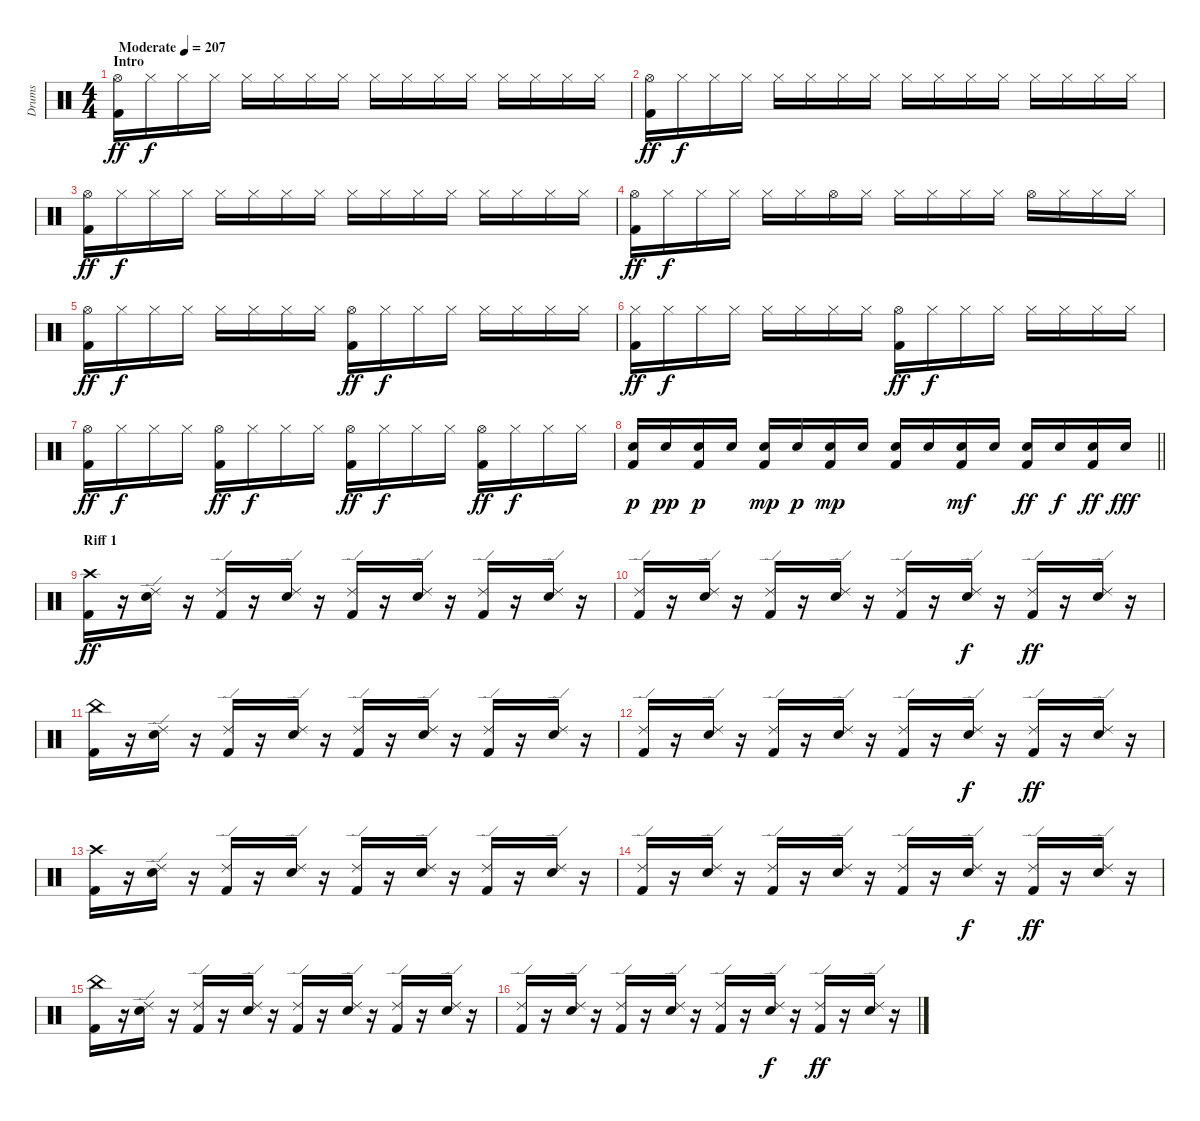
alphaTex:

\track ("Drums" "Drums") {instrument percussion}
\staff {score}
\articulation defaults
\ts (4 4)
\section ("" "Intro")
\tempo (207 "Moderate")
\clef neutral
\ks c
("Kick (hit) 2" "Hi-Hat (open)").16{dy ff} "Hi-Hat (closed)".16{dy f} "Hi-Hat (closed)".16 "Hi-Hat (closed)".16 "Hi-Hat (closed)".16 "Hi-Hat (closed)".16 "Hi-Hat (closed)".16 "Hi-Hat (closed)".16 "Hi-Hat (closed)".16 "Hi-Hat (closed)".16 "Hi-Hat (closed)".16 "Hi-Hat (closed)".16 "Hi-Hat (closed)".16 "Hi-Hat (closed)".16 "Hi-Hat (closed)".16 "Hi-Hat (closed)".16 |
("Kick (hit) 2" "Hi-Hat (open)").16{dy ff} "Hi-Hat (closed)".16{dy f} "Hi-Hat (closed)".16 "Hi-Hat (closed)".16 "Hi-Hat (closed)".16 "Hi-Hat (closed)".16 "Hi-Hat (closed)".16 "Hi-Hat (closed)".16 "Hi-Hat (closed)".16 "Hi-Hat (closed)".16 "Hi-Hat (closed)".16 "Hi-Hat (closed)".16 "Hi-Hat (closed)".16 "Hi-Hat (closed)".16 "Hi-Hat (closed)".16 "Hi-Hat (closed)".16 |
("Kick (hit) 2" "Hi-Hat (open)").16{dy ff} "Hi-Hat (closed)".16{dy f} "Hi-Hat (closed)".16 "Hi-Hat (closed)".16 "Hi-Hat (closed)".16 "Hi-Hat (closed)".16 "Hi-Hat (closed)".16 "Hi-Hat (closed)".16 "Hi-Hat (closed)".16 "Hi-Hat (closed)".16 "Hi-Hat (closed)".16 "Hi-Hat (closed)".16 "Hi-Hat (closed)".16 "Hi-Hat (closed)".16 "Hi-Hat (closed)".16 "Hi-Hat (closed)".16 |
("Kick (hit) 2" "Hi-Hat (open)").16{dy ff} "Hi-Hat (closed)".16{dy f} "Hi-Hat (closed)".16 "Hi-Hat (closed)".16 "Hi-Hat (closed)".16 "Hi-Hat (closed)".16 "Hi-Hat (open)".16 "Hi-Hat (closed)".16 "Hi-Hat (closed)".16 "Hi-Hat (closed)".16 "Hi-Hat (closed)".16 "Hi-Hat (closed)".16 "Hi-Hat (open)".16 "Hi-Hat (closed)".16 "Hi-Hat (closed)".16 "Hi-Hat (closed)".16 |
("Kick (hit) 2" "Hi-Hat (open)").16{dy ff} "Hi-Hat (closed)".16{dy f} "Hi-Hat (closed)".16 "Hi-Hat (closed)".16 "Hi-Hat (closed)".16 "Hi-Hat (closed)".16 "Hi-Hat (closed)".16 "Hi-Hat (closed)".16 ("Kick (hit) 2" "Hi-Hat (open)").16{dy ff} "Hi-Hat (closed)".16{dy f} "Hi-Hat (closed)".16 "Hi-Hat (closed)".16 "Hi-Hat (closed)".16 "Hi-Hat (closed)".16 "Hi-Hat (closed)".16 "Hi-Hat (closed)".16 |
("Kick (hit) 2" "Hi-Hat (closed)").16{dy ff} "Hi-Hat (closed)".16{dy f} "Hi-Hat (closed)".16 "Hi-Hat (closed)".16 "Hi-Hat (closed)".16 "Hi-Hat (closed)".16 "Hi-Hat (closed)".16 "Hi-Hat (closed)".16 ("Kick (hit) 2" "Hi-Hat (open)").16{dy ff} "Hi-Hat (closed)".16{dy f} "Hi-Hat (closed)".16 "Hi-Hat (closed)".16 "Hi-Hat (closed)".16 "Hi-Hat (closed)".16 "Hi-Hat (closed)".16 "Hi-Hat (closed)".16 |
("Kick (hit) 2" "Hi-Hat (open)").16{dy ff} "Hi-Hat (closed)".16{dy f} "Hi-Hat (closed)".16 "Hi-Hat (closed)".16 ("Kick (hit) 2" "Hi-Hat (open)").16{dy ff} "Hi-Hat (closed)".16{dy f} "Hi-Hat (closed)".16 "Hi-Hat (closed)".16 ("Kick (hit) 2" "Hi-Hat (open)").16{dy ff} "Hi-Hat (closed)".16{dy f} "Hi-Hat (closed)".16 "Hi-Hat (closed)".16 ("Kick (hit) 2" "Hi-Hat (open)").16{dy ff} "Hi-Hat (closed)".16{dy f} "Hi-Hat (closed)".16 "Hi-Hat (closed)".16 |
\barLineRight lightlight
("Kick (hit) 2" "Snare (hit) 2").16{dy p} "Snare (hit) 2".16{dy pp} ("Kick (hit) 2" "Snare (hit) 2").16{dy p} "Snare (hit) 2".16 ("Kick (hit) 2" "Snare (hit) 2").16{dy mp} "Snare (hit) 2".16{dy p} ("Kick (hit) 2" "Snare (hit) 2").16{dy mp} "Snare (hit) 2".16 ("Kick (hit) 2" "Snare (hit) 2").16 "Snare (hit) 2".16 ("Kick (hit) 2" "Snare (hit) 2").16{dy mf} "Snare (hit) 2".16 ("Kick (hit) 2" "Snare (hit) 2").16{dy ff} "Snare (hit) 2".16{dy f} ("Kick (hit) 2" "Snare (hit) 2").16{dy ff} "Snare (hit) 2".16{dy fff} |
\section ("" "Riff 1")
("Kick (hit) 2" "Crash high (hit)").16{dy ff} r.16 ("Snare (hit) 2" "Ride (edge) 2").16 r.16 ("Kick (hit) 2" "Ride (edge) 2").16 r.16 ("Snare (hit) 2" "Ride (edge) 2").16 r.16 ("Kick (hit) 2" "Ride (edge) 2").16 r.16 ("Snare (hit) 2" "Ride (edge) 2").16 r.16 ("Kick (hit) 2" "Ride (edge) 2").16 r.16 ("Snare (hit) 2" "Ride (edge) 2").16 r.16 |
("Kick (hit) 2" "Ride (edge) 2").16 r.16 ("Snare (hit) 2" "Ride (edge) 2").16 r.16 ("Kick (hit) 2" "Ride (edge) 2").16 r.16 ("Snare (hit) 2" "Ride (edge) 2").16 r.16 ("Kick (hit) 2" "Ride (edge) 2").16 r.16 ("Snare (hit) 2" "Ride (edge) 2").16{dy f} r.16 ("Kick (hit) 2" "Ride (edge) 2").16{dy ff} r.16 ("Snare (hit) 2" "Ride (edge) 2").16 r.16 |
("Kick (hit) 2" "China (hit)").16 r.16 ("Snare (hit) 2" "Ride (edge) 2").16 r.16 ("Kick (hit) 2" "Ride (edge) 2").16 r.16 ("Snare (hit) 2" "Ride (edge) 2").16 r.16 ("Kick (hit) 2" "Ride (edge) 2").16 r.16 ("Snare (hit) 2" "Ride (edge) 2").16 r.16 ("Kick (hit) 2" "Ride (edge) 2").16 r.16 ("Snare (hit) 2" "Ride (edge) 2").16 r.16 |
("Kick (hit) 2" "Ride (edge) 2").16 r.16 ("Snare (hit) 2" "Ride (edge) 2").16 r.16 ("Kick (hit) 2" "Ride (edge) 2").16 r.16 ("Snare (hit) 2" "Ride (edge) 2").16 r.16 ("Kick (hit) 2" "Ride (edge) 2").16 r.16 ("Snare (hit) 2" "Ride (edge) 2").16{dy f} r.16 ("Kick (hit) 2" "Ride (edge) 2").16{dy ff} r.16 ("Snare (hit) 2" "Ride (edge) 2").16 r.16 |
("Kick (hit) 2" "Crash high (hit)").16 r.16 ("Snare (hit) 2" "Ride (edge) 2").16 r.16 ("Kick (hit) 2" "Ride (edge) 2").16 r.16 ("Snare (hit) 2" "Ride (edge) 2").16 r.16 ("Kick (hit) 2" "Ride (edge) 2").16 r.16 ("Snare (hit) 2" "Ride (edge) 2").16 r.16 ("Kick (hit) 2" "Ride (edge) 2").16 r.16 ("Snare (hit) 2" "Ride (edge) 2").16 r.16 |
("Kick (hit) 2" "Ride (edge) 2").16 r.16 ("Snare (hit) 2" "Ride (edge) 2").16 r.16 ("Kick (hit) 2" "Ride (edge) 2").16 r.16 ("Snare (hit) 2" "Ride (edge) 2").16 r.16 ("Kick (hit) 2" "Ride (edge) 2").16 r.16 ("Snare (hit) 2" "Ride (edge) 2").16{dy f} r.16 ("Kick (hit) 2" "Ride (edge) 2").16{dy ff} r.16 ("Snare (hit) 2" "Ride (edge) 2").16 r.16 |
("Kick (hit) 2" "China (hit)").16 r.16 ("Snare (hit) 2" "Ride (edge) 2").16 r.16 ("Kick (hit) 2" "Ride (edge) 2").16 r.16 ("Snare (hit) 2" "Ride (edge) 2").16 r.16 ("Kick (hit) 2" "Ride (edge) 2").16 r.16 ("Snare (hit) 2" "Ride (edge) 2").16 r.16 ("Kick (hit) 2" "Ride (edge) 2").16 r.16 ("Snare (hit) 2" "Ride (edge) 2").16 r.16 |
("Kick (hit) 2" "Ride (edge) 2").16 r.16 ("Snare (hit) 2" "Ride (edge) 2").16 r.16 ("Kick (hit) 2" "Ride (edge) 2").16 r.16 ("Snare (hit) 2" "Ride (edge) 2").16 r.16 ("Kick (hit) 2" "Ride (edge) 2").16 r.16 ("Snare (hit) 2" "Ride (edge) 2").16{dy f} r.16 ("Kick (hit) 2" "Ride (edge) 2").16{dy ff} r.16 ("Snare (hit) 2" "Ride (edge) 2").16 r.16
